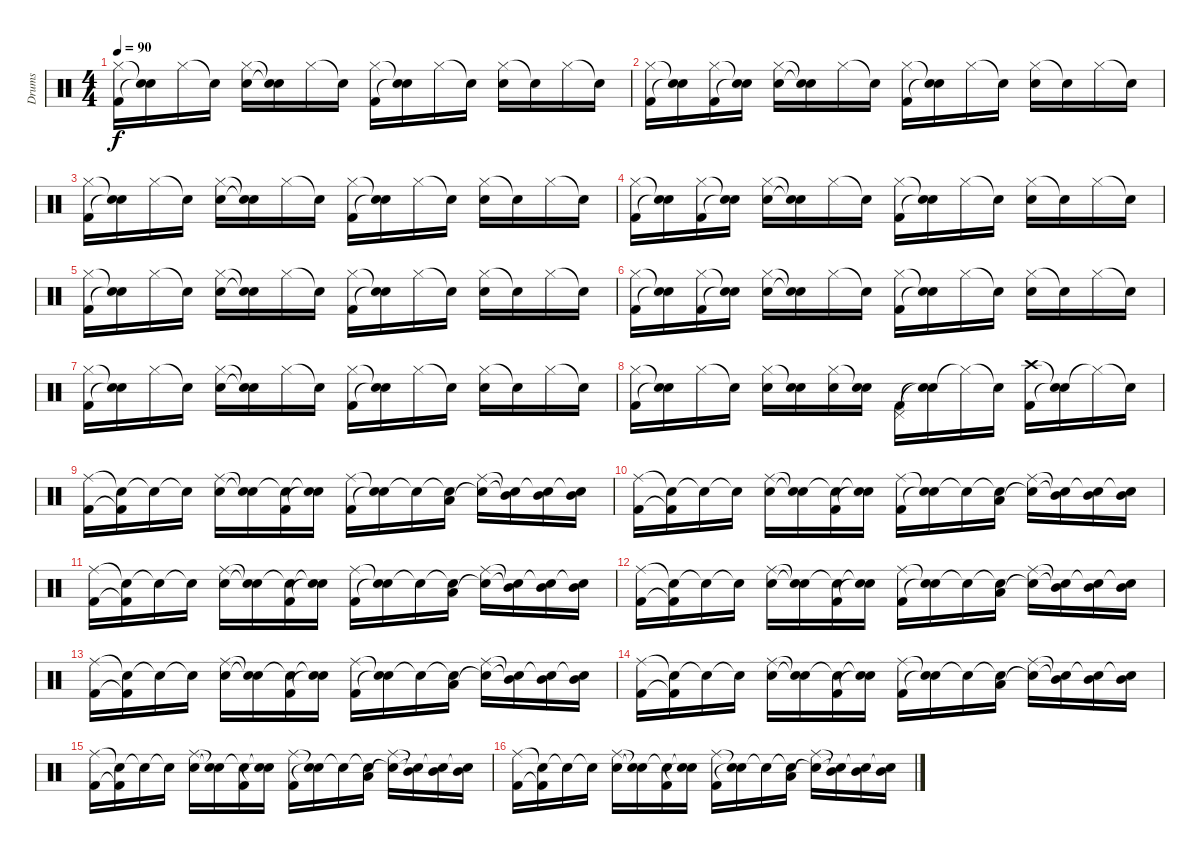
\track ("Drums" "Drums") {instrument percussion}
\staff {score}
\articulation defaults
\ts (4 4)
\tempo 90
\clef neutral
\ks c
("Hi-Hat (closed)" "Kick (hit) 2").16{dy f} ("Snare (hit)"{t} "Snare (hit)"{t}).16 "Hi-Hat (closed)".16 "Snare (hit)"{t}.16 ("Hi-Hat (closed)" "Snare (hit) 2").16 ("Snare (hit)"{t} "Snare (hit)"{t}).16 "Hi-Hat (closed)".16 "Snare (hit)"{t}.16 ("Hi-Hat (closed)" "Kick (hit) 2").16 ("Snare (hit)"{t} "Snare (hit)"{t}).16 "Hi-Hat (closed)".16 "Snare (hit)"{t}.16 ("Hi-Hat (closed)" "Snare (hit) 2").16 "Snare (hit)"{t}.16 "Hi-Hat (closed)".16 "Snare (hit)"{t}.16 |
("Hi-Hat (closed)" "Kick (hit) 2").16 ("Snare (hit)"{t} "Snare (hit)"{t}).16 ("Hi-Hat (closed)" "Kick (hit) 2").16 ("Snare (hit)"{t} "Snare (hit)"{t}).16 ("Hi-Hat (closed)" "Snare (hit) 2").16 ("Snare (hit)"{t} "Snare (hit)"{t}).16 "Hi-Hat (closed)".16 "Snare (hit)"{t}.16 ("Hi-Hat (closed)" "Kick (hit) 2").16 ("Snare (hit)"{t} "Snare (hit)"{t}).16 "Hi-Hat (closed)".16 "Snare (hit)"{t}.16 ("Hi-Hat (closed)" "Snare (hit) 2").16 "Snare (hit)"{t}.16 "Hi-Hat (closed)".16 "Snare (hit)"{t}.16 |
("Hi-Hat (closed)" "Kick (hit) 2").16 ("Snare (hit)"{t} "Snare (hit)"{t}).16 "Hi-Hat (closed)".16 "Snare (hit)"{t}.16 ("Hi-Hat (closed)" "Snare (hit) 2").16 ("Snare (hit)"{t} "Snare (hit)"{t}).16 "Hi-Hat (closed)".16 "Snare (hit)"{t}.16 ("Hi-Hat (closed)" "Kick (hit) 2").16 ("Snare (hit)"{t} "Snare (hit)"{t}).16 "Hi-Hat (closed)".16 "Snare (hit)"{t}.16 ("Hi-Hat (closed)" "Snare (hit) 2").16 "Snare (hit)"{t}.16 "Hi-Hat (closed)".16 "Snare (hit)"{t}.16 |
("Hi-Hat (closed)" "Kick (hit) 2").16 ("Snare (hit)"{t} "Snare (hit)"{t}).16 ("Hi-Hat (closed)" "Kick (hit) 2").16 ("Snare (hit)"{t} "Snare (hit)"{t}).16 ("Hi-Hat (closed)" "Snare (hit) 2").16 ("Snare (hit)"{t} "Snare (hit)"{t}).16 "Hi-Hat (closed)".16 "Snare (hit)"{t}.16 ("Hi-Hat (closed)" "Kick (hit) 2").16 ("Snare (hit)"{t} "Snare (hit)"{t}).16 "Hi-Hat (closed)".16 "Snare (hit)"{t}.16 ("Hi-Hat (closed)" "Snare (hit) 2").16 "Snare (hit)"{t}.16 "Hi-Hat (closed)".16 "Snare (hit)"{t}.16 |
("Hi-Hat (closed)" "Kick (hit) 2").16 ("Snare (hit)"{t} "Snare (hit)"{t}).16 "Hi-Hat (closed)".16 "Snare (hit)"{t}.16 ("Hi-Hat (closed)" "Snare (hit) 2").16 ("Snare (hit)"{t} "Snare (hit)"{t}).16 "Hi-Hat (closed)".16 "Snare (hit)"{t}.16 ("Hi-Hat (closed)" "Kick (hit) 2").16 ("Snare (hit)"{t} "Snare (hit)"{t}).16 "Hi-Hat (closed)".16 "Snare (hit)"{t}.16 ("Hi-Hat (closed)" "Snare (hit) 2").16 "Snare (hit)"{t}.16 "Hi-Hat (closed)".16 "Snare (hit)"{t}.16 |
("Hi-Hat (closed)" "Kick (hit) 2").16 ("Snare (hit)"{t} "Snare (hit)"{t}).16 ("Hi-Hat (closed)" "Kick (hit) 2").16 ("Snare (hit)"{t} "Snare (hit)"{t}).16 ("Hi-Hat (closed)" "Snare (hit) 2").16 ("Snare (hit)"{t} "Snare (hit)"{t}).16 "Hi-Hat (closed)".16 "Snare (hit)"{t}.16 ("Hi-Hat (closed)" "Kick (hit) 2").16 ("Snare (hit)"{t} "Snare (hit)"{t}).16 "Hi-Hat (closed)".16 "Snare (hit)"{t}.16 ("Hi-Hat (closed)" "Snare (hit) 2").16 "Snare (hit)"{t}.16 "Hi-Hat (closed)".16 "Snare (hit)"{t}.16 |
("Hi-Hat (closed)" "Kick (hit) 2").16 ("Snare (hit)"{t} "Snare (hit)"{t}).16 "Hi-Hat (closed)".16 "Snare (hit)"{t}.16 ("Hi-Hat (closed)" "Snare (hit) 2").16 ("Snare (hit)"{t} "Snare (hit)"{t}).16 "Hi-Hat (closed)".16 "Snare (hit)"{t}.16 ("Hi-Hat (closed)" "Kick (hit) 2").16 ("Snare (hit)"{t} "Snare (hit)"{t}).16 "Hi-Hat (closed)".16 "Snare (hit)"{t}.16 ("Hi-Hat (closed)" "Snare (hit) 2").16 "Snare (hit)"{t}.16 "Hi-Hat (closed)".16 "Snare (hit)"{t}.16 |
("Hi-Hat (closed)" "Kick (hit) 2").16 ("Snare (hit)"{t} "Snare (hit)"{t}).16 "Hi-Hat (closed)".16 "Snare (hit)"{t}.16 ("Hi-Hat (closed)" "Snare (hit) 2").16 ("Snare (hit)"{t} "Snare (hit) 2").16 ("Hi-Hat (closed)" "Snare (hit) 2").16 ("Snare (hit)"{t} "Snare (hit) 2").16 ("Pedal Hi-Hat (hit)" "Kick (hit) 2").16 ("Snare (hit)"{t} "Snare (hit)"{t}).16 "Hi-Hat (closed)"{t}.16 "Snare (hit)"{t}.16 ("Crash high (hit)" "Kick (hit) 2").16 ("Snare (hit)"{t} "Snare (hit)"{t}).16 "Hi-Hat (closed)"{t}.16 "Snare (hit)"{t}.16 |
("Ride (middle)" "Kick (hit) 2").16 ("Snare (hit)"{t} "Kick (hit) 2"{t}).16 "Snare (hit)"{t}.16 "Snare (hit)"{t}.16 ("Ride (middle)" "Snare (hit) 2").16 ("Snare (hit)"{t} "Snare (hit)"{t}).16 ("Snare (hit)"{t} "Kick (hit) 2").16 ("Snare (hit)"{t} "Snare (hit)"{t}).16 ("Ride (middle)" "Kick (hit) 2").16 ("Snare (hit)"{t} "Snare (hit)"{t}).16 "Snare (hit)"{t}.16 ("Snare (hit)"{t} "Low Tom (hit)").16 ("Ride (middle)" "Snare (hit)"{t}).16 ("Snare (hit)"{t} "Mid Tom (hit)"{t}).16 ("Snare (hit)"{t} "Mid Tom (hit)").16 ("Snare (hit)"{t} "Mid Tom (hit)").16 |
("Ride (middle)" "Kick (hit) 2").16 ("Snare (hit)"{t} "Kick (hit) 2"{t}).16 "Snare (hit)"{t}.16 "Snare (hit)"{t}.16 ("Ride (middle)" "Snare (hit) 2").16 ("Snare (hit)"{t} "Snare (hit)"{t}).16 ("Snare (hit)"{t} "Kick (hit) 2").16 ("Snare (hit)"{t} "Snare (hit)"{t}).16 ("Ride (middle)" "Kick (hit) 2").16 ("Snare (hit)"{t} "Snare (hit)"{t}).16 "Snare (hit)"{t}.16 ("Snare (hit)"{t} "Low Tom (hit)").16 ("Ride (middle)" "Snare (hit)"{t}).16 ("Snare (hit)"{t} "Mid Tom (hit)"{t}).16 ("Snare (hit)"{t} "Mid Tom (hit)").16 ("Snare (hit)"{t} "Mid Tom (hit)").16 |
("Ride (middle)" "Kick (hit) 2").16 ("Snare (hit)"{t} "Kick (hit) 2"{t}).16 "Snare (hit)"{t}.16 "Snare (hit)"{t}.16 ("Ride (middle)" "Snare (hit) 2").16 ("Snare (hit)"{t} "Snare (hit)"{t}).16 ("Snare (hit)"{t} "Kick (hit) 2").16 ("Snare (hit)"{t} "Snare (hit)"{t}).16 ("Ride (middle)" "Kick (hit) 2").16 ("Snare (hit)"{t} "Snare (hit)"{t}).16 "Snare (hit)"{t}.16 ("Snare (hit)"{t} "Low Tom (hit)").16 ("Ride (middle)" "Snare (hit)"{t}).16 ("Snare (hit)"{t} "Mid Tom (hit)"{t}).16 ("Snare (hit)"{t} "Mid Tom (hit)").16 ("Snare (hit)"{t} "Mid Tom (hit)").16 |
("Ride (middle)" "Kick (hit) 2").16 ("Snare (hit)"{t} "Kick (hit) 2"{t}).16 "Snare (hit)"{t}.16 "Snare (hit)"{t}.16 ("Ride (middle)" "Snare (hit) 2").16 ("Snare (hit)"{t} "Snare (hit)"{t}).16 ("Snare (hit)"{t} "Kick (hit) 2").16 ("Snare (hit)"{t} "Snare (hit)"{t}).16 ("Ride (middle)" "Kick (hit) 2").16 ("Snare (hit)"{t} "Snare (hit)"{t}).16 "Snare (hit)"{t}.16 ("Snare (hit)"{t} "Low Tom (hit)").16 ("Ride (middle)" "Snare (hit)"{t}).16 ("Snare (hit)"{t} "Mid Tom (hit)"{t}).16 ("Snare (hit)"{t} "Mid Tom (hit)").16 ("Snare (hit)"{t} "Mid Tom (hit)").16 |
("Ride (middle)" "Kick (hit) 2").16 ("Snare (hit)"{t} "Kick (hit) 2"{t}).16 "Snare (hit)"{t}.16 "Snare (hit)"{t}.16 ("Ride (middle)" "Snare (hit) 2").16 ("Snare (hit)"{t} "Snare (hit)"{t}).16 ("Snare (hit)"{t} "Kick (hit) 2").16 ("Snare (hit)"{t} "Snare (hit)"{t}).16 ("Ride (middle)" "Kick (hit) 2").16 ("Snare (hit)"{t} "Snare (hit)"{t}).16 "Snare (hit)"{t}.16 ("Snare (hit)"{t} "Low Tom (hit)").16 ("Ride (middle)" "Snare (hit)"{t}).16 ("Snare (hit)"{t} "Mid Tom (hit)"{t}).16 ("Snare (hit)"{t} "Mid Tom (hit)").16 ("Snare (hit)"{t} "Mid Tom (hit)").16 |
("Ride (middle)" "Kick (hit) 2").16 ("Snare (hit)"{t} "Kick (hit) 2"{t}).16 "Snare (hit)"{t}.16 "Snare (hit)"{t}.16 ("Ride (middle)" "Snare (hit) 2").16 ("Snare (hit)"{t} "Snare (hit)"{t}).16 ("Snare (hit)"{t} "Kick (hit) 2").16 ("Snare (hit)"{t} "Snare (hit)"{t}).16 ("Ride (middle)" "Kick (hit) 2").16 ("Snare (hit)"{t} "Snare (hit)"{t}).16 "Snare (hit)"{t}.16 ("Snare (hit)"{t} "Low Tom (hit)").16 ("Ride (middle)" "Snare (hit)"{t}).16 ("Snare (hit)"{t} "Mid Tom (hit)"{t}).16 ("Snare (hit)"{t} "Mid Tom (hit)").16 ("Snare (hit)"{t} "Mid Tom (hit)").16 |
("Ride (middle)" "Kick (hit) 2").16 ("Snare (hit)"{t} "Kick (hit) 2"{t}).16 "Snare (hit)"{t}.16 "Snare (hit)"{t}.16 ("Ride (middle)" "Snare (hit) 2").16 ("Snare (hit)"{t} "Snare (hit)"{t}).16 ("Snare (hit)"{t} "Kick (hit) 2").16 ("Snare (hit)"{t} "Snare (hit)"{t}).16 ("Ride (middle)" "Kick (hit) 2").16 ("Snare (hit)"{t} "Snare (hit)"{t}).16 "Snare (hit)"{t}.16 ("Snare (hit)"{t} "Low Tom (hit)").16 ("Ride (middle)" "Snare (hit)"{t}).16 ("Snare (hit)"{t} "Mid Tom (hit)"{t}).16 ("Snare (hit)"{t} "Mid Tom (hit)").16 ("Snare (hit)"{t} "Mid Tom (hit)").16 |
("Ride (middle)" "Kick (hit) 2").16 ("Snare (hit)"{t} "Kick (hit) 2"{t}).16 "Snare (hit)"{t}.16 "Snare (hit)"{t}.16 ("Ride (middle)" "Snare (hit) 2").16 ("Snare (hit)"{t} "Snare (hit)"{t}).16 ("Snare (hit)"{t} "Kick (hit) 2").16 ("Snare (hit)"{t} "Snare (hit)"{t}).16 ("Ride (middle)" "Kick (hit) 2").16 ("Snare (hit)"{t} "Snare (hit)"{t}).16 "Snare (hit)"{t}.16 ("Snare (hit)"{t} "Low Tom (hit)").16 ("Ride (middle)" "Snare (hit)"{t}).16 ("Snare (hit)"{t} "Mid Tom (hit)"{t}).16 ("Snare (hit)"{t} "Mid Tom (hit)").16 ("Snare (hit)"{t} "Mid Tom (hit)").16
